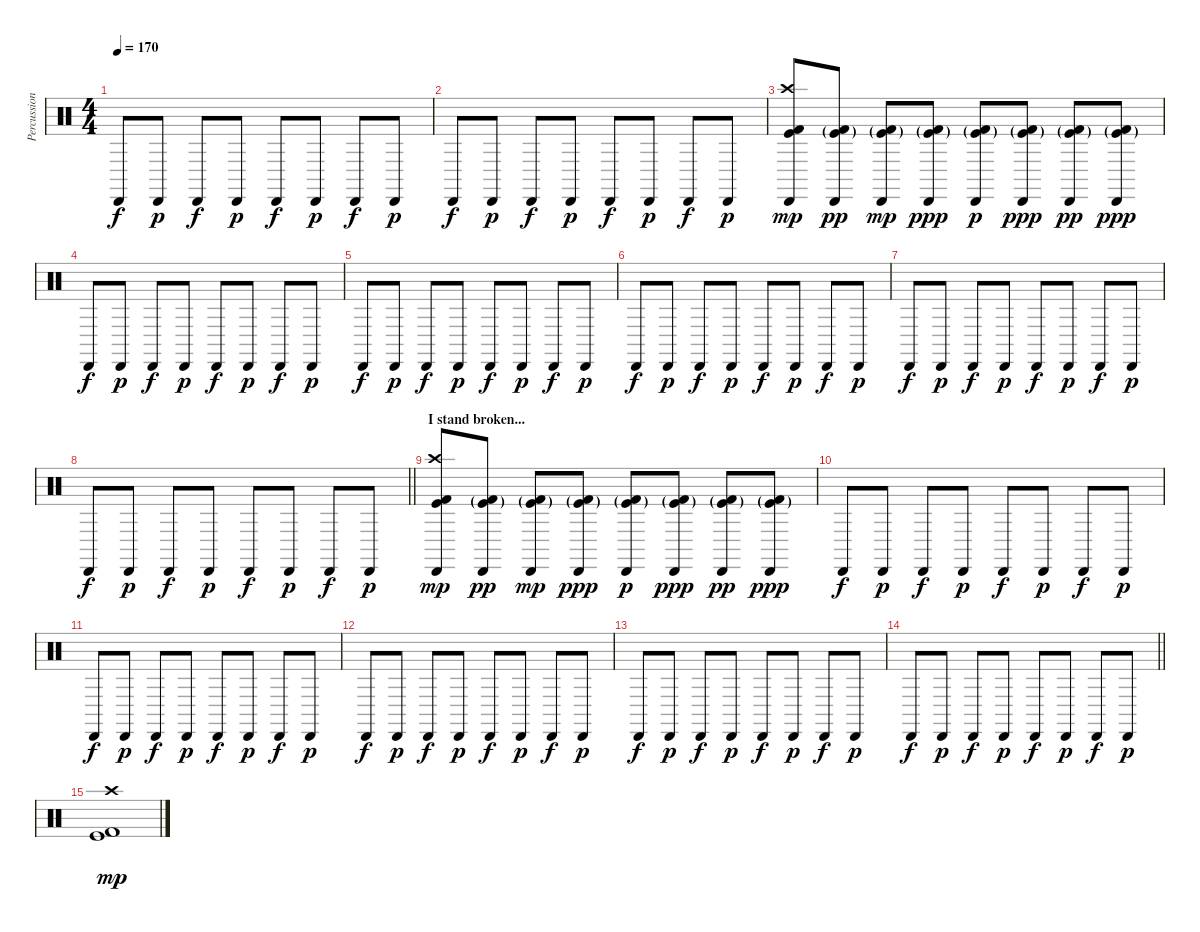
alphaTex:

\track ("Percussion" "Percussion") {instrument percussion}
\staff {score}
\articulation defaults
\ts (4 4)
\tempo 170
\clef neutral
\ks c "Cabasa (hit)".8{dy f} "Cabasa (hit)".8{dy p} "Cabasa (hit)".8{dy f} "Cabasa (hit)".8{dy p} "Cabasa (hit)".8{dy f} "Cabasa (hit)".8{dy p} "Cabasa (hit)".8{dy f} "Cabasa (hit)".8{dy p}
|
"Cabasa (hit)".8{dy f} "Cabasa (hit)".8{dy p} "Cabasa (hit)".8{dy f} "Cabasa (hit)".8{dy p} "Cabasa (hit)".8{dy f} "Cabasa (hit)".8{dy p} "Cabasa (hit)".8{dy f} "Cabasa (hit)".8{dy p} |
("Cabasa (hit)" "Kick (hit)" "Kick (hit) 2" "Crash high (hit)").8{dy mp} ("Cabasa (hit)" "Kick (hit)"{g} "Kick (hit) 2"{g}).8{dy pp} ("Cabasa (hit)" "Kick (hit)"{g} "Kick (hit) 2"{g}).8{dy mp} ("Cabasa (hit)" "Kick (hit)"{g} "Kick (hit) 2"{g}).8{dy ppp} ("Cabasa (hit)" "Kick (hit)"{g} "Kick (hit) 2"{g}).8{dy p} ("Cabasa (hit)" "Kick (hit)"{g} "Kick (hit) 2"{g}).8{dy ppp} ("Cabasa (hit)" "Kick (hit)"{g} "Kick (hit) 2"{g}).8{dy pp} ("Cabasa (hit)" "Kick (hit)"{g} "Kick (hit) 2"{g}).8{dy ppp} |
"Cabasa (hit)".8{dy f} "Cabasa (hit)".8{dy p} "Cabasa (hit)".8{dy f} "Cabasa (hit)".8{dy p} "Cabasa (hit)".8{dy f} "Cabasa (hit)".8{dy p} "Cabasa (hit)".8{dy f} "Cabasa (hit)".8{dy p} |
"Cabasa (hit)".8{dy f} "Cabasa (hit)".8{dy p} "Cabasa (hit)".8{dy f} "Cabasa (hit)".8{dy p} "Cabasa (hit)".8{dy f} "Cabasa (hit)".8{dy p} "Cabasa (hit)".8{dy f} "Cabasa (hit)".8{dy p} |
"Cabasa (hit)".8{dy f} "Cabasa (hit)".8{dy p} "Cabasa (hit)".8{dy f} "Cabasa (hit)".8{dy p} "Cabasa (hit)".8{dy f} "Cabasa (hit)".8{dy p} "Cabasa (hit)".8{dy f} "Cabasa (hit)".8{dy p} |
"Cabasa (hit)".8{dy f} "Cabasa (hit)".8{dy p} "Cabasa (hit)".8{dy f} "Cabasa (hit)".8{dy p} "Cabasa (hit)".8{dy f} "Cabasa (hit)".8{dy p} "Cabasa (hit)".8{dy f} "Cabasa (hit)".8{dy p} |
\barLineRight lightlight "Cabasa (hit)".8{dy f} "Cabasa (hit)".8{dy p} "Cabasa (hit)".8{dy f} "Cabasa (hit)".8{dy p} "Cabasa (hit)".8{dy f} "Cabasa (hit)".8{dy p} "Cabasa (hit)".8{dy f} "Cabasa (hit)".8{dy p}
|
\section ("" "I stand broken...")
("Cabasa (hit)" "Kick (hit)" "Kick (hit) 2" "Crash high (hit)").8{dy mp} ("Cabasa (hit)" "Kick (hit)"{g} "Kick (hit) 2"{g}).8{dy pp} ("Cabasa (hit)" "Kick (hit)"{g} "Kick (hit) 2"{g}).8{dy mp} ("Cabasa (hit)" "Kick (hit)"{g} "Kick (hit) 2"{g}).8{dy ppp} ("Cabasa (hit)" "Kick (hit)"{g} "Kick (hit) 2"{g}).8{dy p} ("Cabasa (hit)" "Kick (hit)"{g} "Kick (hit) 2"{g}).8{dy ppp} ("Cabasa (hit)" "Kick (hit)"{g} "Kick (hit) 2"{g}).8{dy pp} ("Cabasa (hit)" "Kick (hit)"{g} "Kick (hit) 2"{g}).8{dy ppp} |
"Cabasa (hit)".8{dy f} "Cabasa (hit)".8{dy p} "Cabasa (hit)".8{dy f} "Cabasa (hit)".8{dy p} "Cabasa (hit)".8{dy f} "Cabasa (hit)".8{dy p} "Cabasa (hit)".8{dy f} "Cabasa (hit)".8{dy p} |
"Cabasa (hit)".8{dy f} "Cabasa (hit)".8{dy p} "Cabasa (hit)".8{dy f} "Cabasa (hit)".8{dy p} "Cabasa (hit)".8{dy f} "Cabasa (hit)".8{dy p} "Cabasa (hit)".8{dy f} "Cabasa (hit)".8{dy p} |
"Cabasa (hit)".8{dy f} "Cabasa (hit)".8{dy p} "Cabasa (hit)".8{dy f} "Cabasa (hit)".8{dy p} "Cabasa (hit)".8{dy f} "Cabasa (hit)".8{dy p} "Cabasa (hit)".8{dy f} "Cabasa (hit)".8{dy p} |
"Cabasa (hit)".8{dy f} "Cabasa (hit)".8{dy p} "Cabasa (hit)".8{dy f} "Cabasa (hit)".8{dy p} "Cabasa (hit)".8{dy f} "Cabasa (hit)".8{dy p} "Cabasa (hit)".8{dy f} "Cabasa (hit)".8{dy p} |
\barLineRight lightlight "Cabasa (hit)".8{dy f} "Cabasa (hit)".8{dy p} "Cabasa (hit)".8{dy f} "Cabasa (hit)".8{dy p} "Cabasa (hit)".8{dy f} "Cabasa (hit)".8{dy p} "Cabasa (hit)".8{dy f} "Cabasa (hit)".8{dy p}
|
("Kick (hit)" "Kick (hit) 2" "Crash high (hit)").1{dy mp}
